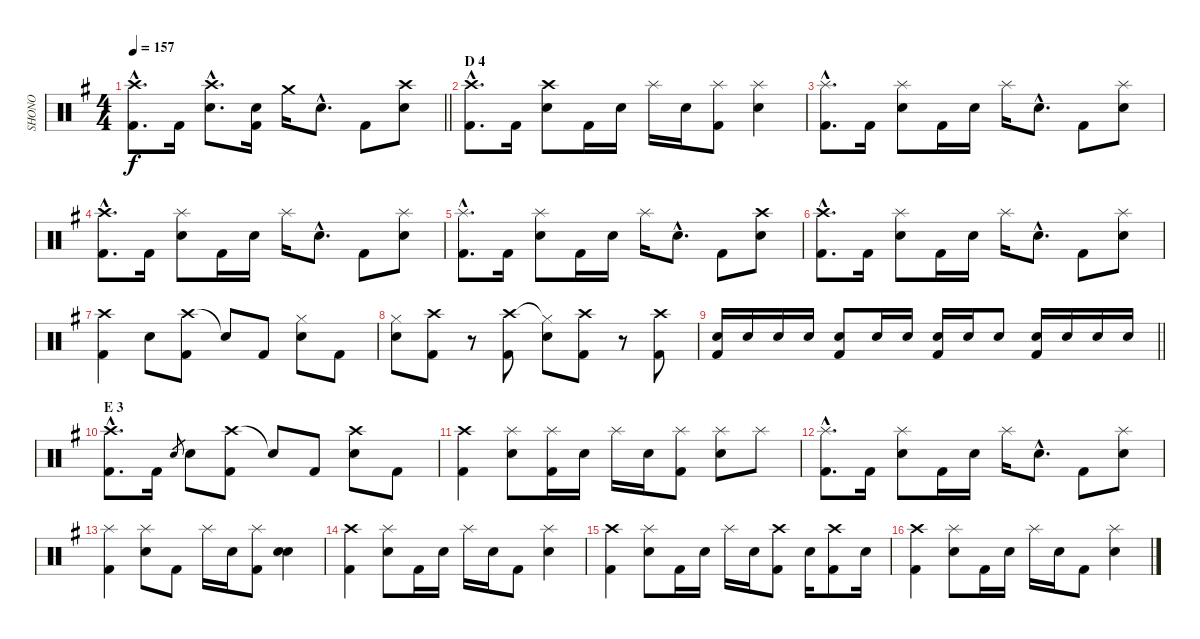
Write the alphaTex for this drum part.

\track ("SHONO" "SHONO") {instrument percussion}
\staff {score}
\articulation defaults
\ts (4 4)
\tempo 157
\clef neutral
\barLineRight lightlight
\ks g
("Crash high (hit)"{hac} "Kick (hit) 2"{hac}).8{d dy f} "Kick (hit) 2".16 ("Crash high (hit)"{hac} "Snare (hit) 2"{hac}).8{d} ("Kick (hit) 2" "Snare (hit) 2").16 "Crash medium (hit)".16 "Snare (hit) 2"{hac}.8{d} "Kick (hit) 2".8 ("Crash high (hit)" "Snare (hit) 2").8 |
\section ("" "D 4")
("Crash high (hit)"{hac} "Kick (hit) 2"{hac}).8{d} "Kick (hit) 2".16 ("Crash high (hit)" "Snare (hit) 2").8 "Kick (hit) 2".16 "Snare (hit) 2".16 "Splash (hit)".16 "Snare (hit) 2".16 ("Splash (hit)" "Kick (hit) 2").8 ("Splash (hit)" "Snare (hit) 2").4 |
("Splash (hit)"{hac} "Kick (hit) 2"{hac}).8{d} "Kick (hit) 2".16 ("Splash (hit)" "Snare (hit) 2").8 "Kick (hit) 2".16 "Snare (hit) 2".16 "Splash (hit)".16 "Snare (hit) 2"{hac}.8{d} "Kick (hit) 2".8 ("Splash (hit)" "Snare (hit) 2").8 |
("Crash high (hit)"{hac} "Kick (hit) 2"{hac}).8{d} "Kick (hit) 2".16 ("Splash (hit)" "Snare (hit) 2").8 "Kick (hit) 2".16 "Snare (hit) 2".16 "Splash (hit)".16 "Snare (hit) 2"{hac}.8{d} "Kick (hit) 2".8 ("Splash (hit)" "Snare (hit) 2").8 |
("Splash (hit)"{hac} "Kick (hit) 2"{hac}).8{d} "Kick (hit) 2".16 ("Splash (hit)" "Snare (hit) 2").8 "Kick (hit) 2".16 "Snare (hit) 2".16 "Splash (hit)".16 "Snare (hit) 2"{hac}.8{d} "Kick (hit) 2".8 ("Crash high (hit)" "Snare (hit) 2").8 |
("Crash high (hit)"{hac} "Kick (hit) 2"{hac}).8{d} "Kick (hit) 2".16 ("Splash (hit)" "Snare (hit) 2").8 "Kick (hit) 2".16 "Snare (hit) 2".16 "Splash (hit)".16 "Snare (hit) 2"{hac}.8{d} "Kick (hit) 2".8 ("Splash (hit)" "Snare (hit) 2").8 |
("Crash high (hit)" "Kick (hit) 2").4 "Snare (hit) 2".8 ("Crash high (hit)" "Kick (hit) 2").8 "Snare (hit)"{t}.8 "Kick (hit) 2".8 ("Hi-Hat (closed)" "Snare (hit) 2").8 "Kick (hit) 2".8 |
("Hi-Hat (closed)" "Snare (hit) 2").8 ("Crash high (hit)" "Kick (hit) 2").8 r.8 ("Crash high (hit)" "Kick (hit) 2").8 ("Hi-Hat (closed)"{t} "Snare (hit) 2").8 ("Crash high (hit)" "Kick (hit) 2").8 r.8 ("Crash high (hit)" "Kick (hit) 2").8 |
\barLineRight lightlight
("Snare (hit) 2" "Kick (hit) 2").16 "Snare (hit) 2".16 "Snare (hit) 2".16 "Snare (hit) 2".16 ("Snare (hit) 2" "Kick (hit) 2").8 "Snare (hit) 2".16 "Snare (hit) 2".16 ("Snare (hit) 2" "Kick (hit) 2").16 "Snare (hit) 2".16 "Snare (hit) 2".8 ("Snare (hit) 2" "Kick (hit) 2").16 "Snare (hit) 2".16 "Snare (hit) 2".16 "Snare (hit) 2".16 |
\section ("" "E 3")
("Crash high (hit)"{hac} "Kick (hit) 2"{hac}).8{d} "Kick (hit) 2".16 "Snare (hit) 2".8{gr} "Snare (hit) 2".8 ("Crash high (hit)" "Kick (hit) 2").8 "Snare (hit)"{t}.8 "Kick (hit) 2".8 ("Crash high (hit)" "Snare (hit) 2").8 "Kick (hit) 2".8 |
("Crash high (hit)" "Kick (hit) 2").4 ("Splash (hit)" "Snare (hit) 2").8 ("Splash (hit)" "Kick (hit) 2").16 "Snare (hit) 2".16 "Splash (hit)".16 "Snare (hit) 2".16 ("Splash (hit)" "Kick (hit) 2").8 ("Splash (hit)" "Snare (hit) 2").8 "Splash (hit)".8 |
("Splash (hit)"{hac} "Kick (hit) 2"{hac}).8{d} "Kick (hit) 2".16 ("Splash (hit)" "Snare (hit) 2").8 "Kick (hit) 2".16 "Snare (hit) 2".16 "Splash (hit)".16 "Snare (hit) 2"{hac}.8{d} "Kick (hit) 2".8 ("Splash (hit)" "Snare (hit) 2").8 |
("Splash (hit)" "Kick (hit) 2").4 ("Splash (hit)" "Snare (hit) 2").8 "Kick (hit) 2".8 "Splash (hit)".16 "Snare (hit) 2".16 ("Splash (hit)" "Kick (hit) 2").8 ("Hand Clap (hit)" "Snare (hit) 2").4 |
("Crash high (hit)" "Kick (hit) 2").4 ("Splash (hit)" "Snare (hit) 2").8 "Kick (hit) 2".16 "Snare (hit) 2".16 "Splash (hit)".16 "Snare (hit) 2".16 "Kick (hit) 2".8 ("Splash (hit)" "Snare (hit) 2").4 |
("Crash high (hit)" "Kick (hit) 2").4 ("Splash (hit)" "Snare (hit) 2").8 "Kick (hit) 2".16 "Snare (hit) 2".16 "Splash (hit)".16 "Snare (hit) 2".16 ("Crash high (hit)" "Kick (hit) 2").8 "Snare (hit) 2".16 ("Crash high (hit)" "Kick (hit) 2").8 "Snare (hit) 2".16 |
("Crash high (hit)" "Kick (hit) 2").4 ("Splash (hit)" "Snare (hit) 2").8 "Kick (hit) 2".16 "Snare (hit) 2".16 "Splash (hit)".16 "Snare (hit) 2".16 "Kick (hit) 2".8 ("Splash (hit)" "Snare (hit) 2").4
